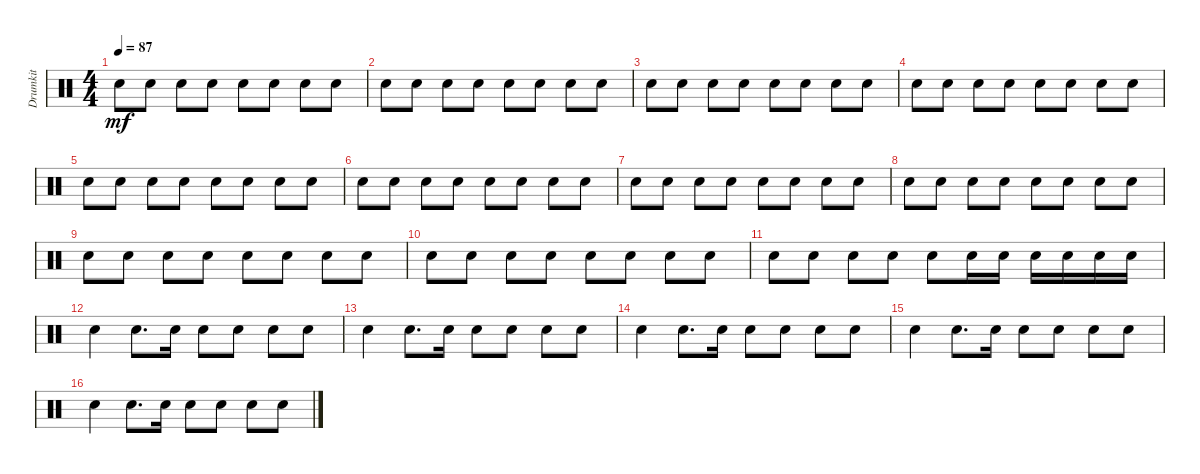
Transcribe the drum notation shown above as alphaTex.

\track ("Drumkit" "Drumkit") {instrument percussion}
\staff {score}
\articulation defaults
\ts (4 4)
\tempo 87
\clef neutral
\ks c "Snare (hit)".8{dy mf} "Snare (hit)".8 "Snare (hit)".8 "Snare (hit)".8 "Snare (hit)".8 "Snare (hit)".8 "Snare (hit)".8 "Snare (hit)".8
|
"Snare (hit)".8 "Snare (hit)".8 "Snare (hit)".8 "Snare (hit)".8 "Snare (hit)".8 "Snare (hit)".8 "Snare (hit)".8 "Snare (hit)".8 |
"Snare (hit)".8 "Snare (hit)".8 "Snare (hit)".8 "Snare (hit)".8 "Snare (hit)".8 "Snare (hit)".8 "Snare (hit)".8 "Snare (hit)".8 |
"Snare (hit)".8 "Snare (hit)".8 "Snare (hit)".8 "Snare (hit)".8 "Snare (hit)".8 "Snare (hit)".8 "Snare (hit)".8 "Snare (hit)".8 |
"Snare (hit)".8 "Snare (hit)".8 "Snare (hit)".8 "Snare (hit)".8 "Snare (hit)".8 "Snare (hit)".8 "Snare (hit)".8 "Snare (hit)".8 |
"Snare (hit)".8 "Snare (hit)".8 "Snare (hit)".8 "Snare (hit)".8 "Snare (hit)".8 "Snare (hit)".8 "Snare (hit)".8 "Snare (hit)".8 |
"Snare (hit)".8 "Snare (hit)".8 "Snare (hit)".8 "Snare (hit)".8 "Snare (hit)".8 "Snare (hit)".8 "Snare (hit)".8 "Snare (hit)".8 |
"Snare (hit)".8 "Snare (hit)".8 "Snare (hit)".8 "Snare (hit)".8 "Snare (hit)".8 "Snare (hit)".8 "Snare (hit)".8 "Snare (hit)".8 |
"Snare (hit)".8 "Snare (hit)".8 "Snare (hit)".8 "Snare (hit)".8 "Snare (hit)".8 "Snare (hit)".8 "Snare (hit)".8 "Snare (hit)".8 |
"Snare (hit)".8 "Snare (hit)".8 "Snare (hit)".8 "Snare (hit)".8 "Snare (hit)".8 "Snare (hit)".8 "Snare (hit)".8 "Snare (hit)".8 |
"Snare (hit)".8 "Snare (hit)".8 "Snare (hit)".8 "Snare (hit)".8 "Snare (hit)".8 "Snare (hit)".16 "Snare (hit)".16 "Snare (hit)".16 "Snare (hit)".16 "Snare (hit)".16 "Snare (hit)".16 |
"Snare (hit)".4 "Snare (hit)".8{d} "Snare (hit)".16 "Snare (hit)".8 "Snare (hit)".8 "Snare (hit)".8 "Snare (hit)".8 |
"Snare (hit)".4 "Snare (hit)".8{d} "Snare (hit)".16 "Snare (hit)".8 "Snare (hit)".8 "Snare (hit)".8 "Snare (hit)".8 |
"Snare (hit)".4 "Snare (hit)".8{d} "Snare (hit)".16 "Snare (hit)".8 "Snare (hit)".8 "Snare (hit)".8 "Snare (hit)".8 |
"Snare (hit)".4 "Snare (hit)".8{d} "Snare (hit)".16 "Snare (hit)".8 "Snare (hit)".8 "Snare (hit)".8 "Snare (hit)".8 |
"Snare (hit)".4 "Snare (hit)".8{d} "Snare (hit)".16 "Snare (hit)".8 "Snare (hit)".8 "Snare (hit)".8 "Snare (hit)".8
